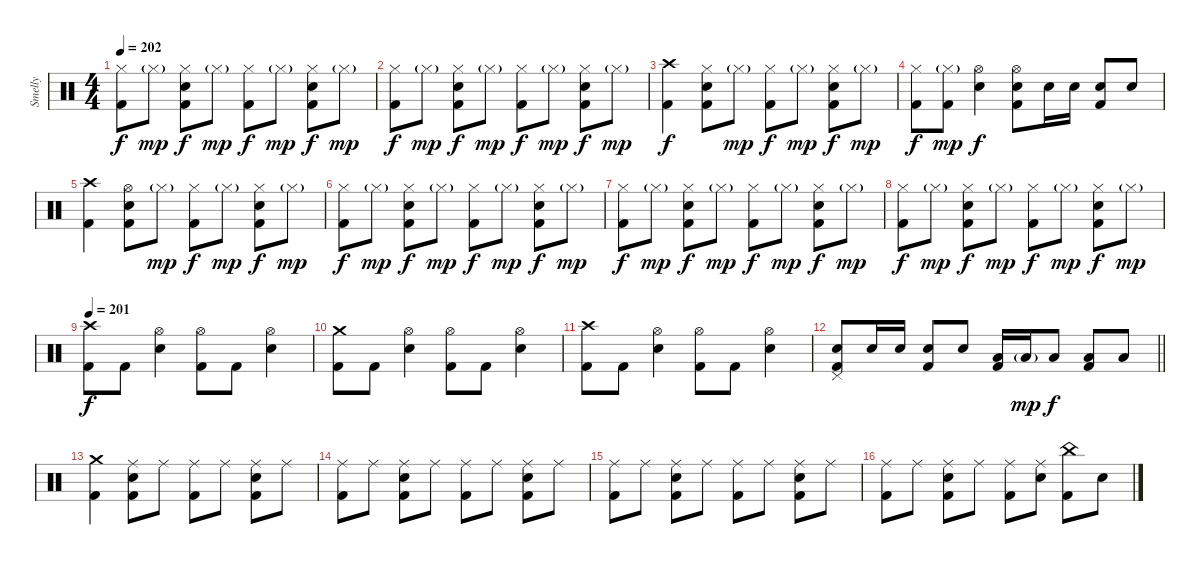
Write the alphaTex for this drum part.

\track ("Smelly" "Smelly") {instrument percussion}
\staff {score}
\articulation defaults
\ts (4 4)
\tempo 202
\clef neutral
\ks c
("Hi-Hat (closed)" "Kick (hit) 2").8{dy f} "Hi-Hat (closed)"{g}.8{dy mp} ("Hi-Hat (closed)" "Electric Snare (hit)" "Kick (hit) 2").8{dy f} "Hi-Hat (closed)"{g}.8{dy mp} ("Hi-Hat (closed)" "Kick (hit) 2").8{dy f} "Hi-Hat (closed)"{g}.8{dy mp} ("Hi-Hat (closed)" "Electric Snare (hit)" "Kick (hit) 2").8{dy f} "Hi-Hat (closed)"{g}.8{dy mp} |
("Hi-Hat (closed)" "Kick (hit) 2").8{dy f} "Hi-Hat (closed)"{g}.8{dy mp} ("Hi-Hat (closed)" "Electric Snare (hit)" "Kick (hit) 2").8{dy f} "Hi-Hat (closed)"{g}.8{dy mp} ("Hi-Hat (closed)" "Kick (hit) 2").8{dy f} "Hi-Hat (closed)"{g}.8{dy mp} ("Hi-Hat (closed)" "Electric Snare (hit)" "Kick (hit) 2").8{dy f} "Hi-Hat (closed)"{g}.8{dy mp} |
("Crash high (hit)" "Kick (hit) 2").4{dy f} ("Hi-Hat (closed)" "Electric Snare (hit)" "Kick (hit) 2").8 "Hi-Hat (closed)"{g}.8{dy mp} ("Hi-Hat (closed)" "Kick (hit) 2").8{dy f} "Hi-Hat (closed)"{g}.8{dy mp} ("Hi-Hat (closed)" "Electric Snare (hit)" "Kick (hit) 2").8{dy f} "Hi-Hat (closed)"{g}.8{dy mp} |
("Hi-Hat (closed)" "Kick (hit) 2").8{dy f} ("Hi-Hat (closed)"{g} "Kick (hit) 2").8{dy mp} ("Hi-Hat (open)" "Electric Snare (hit)").4{dy f} ("Hi-Hat (open)" "Electric Snare (hit)" "Kick (hit) 2").8 "Electric Snare (hit)".16 "Electric Snare (hit)".16 ("Electric Snare (hit)" "Kick (hit) 2").8 "Electric Snare (hit)".8 |
("Crash high (hit)" "Kick (hit) 2").4 ("Hi-Hat (open)" "Electric Snare (hit)" "Kick (hit) 2").8 "Hi-Hat (closed)"{g}.8{dy mp} ("Hi-Hat (closed)" "Kick (hit) 2").8{dy f} "Hi-Hat (closed)"{g}.8{dy mp} ("Hi-Hat (closed)" "Electric Snare (hit)" "Kick (hit) 2").8{dy f} "Hi-Hat (closed)"{g}.8{dy mp} |
("Hi-Hat (closed)" "Kick (hit) 2").8{dy f} "Hi-Hat (closed)"{g}.8{dy mp} ("Hi-Hat (closed)" "Electric Snare (hit)" "Kick (hit) 2").8{dy f} "Hi-Hat (closed)"{g}.8{dy mp} ("Hi-Hat (closed)" "Kick (hit) 2").8{dy f} "Hi-Hat (closed)"{g}.8{dy mp} ("Hi-Hat (closed)" "Electric Snare (hit)" "Kick (hit) 2").8{dy f} "Hi-Hat (closed)"{g}.8{dy mp} |
("Hi-Hat (closed)" "Kick (hit) 2").8{dy f} "Hi-Hat (closed)"{g}.8{dy mp} ("Hi-Hat (closed)" "Electric Snare (hit)" "Kick (hit) 2").8{dy f} "Hi-Hat (closed)"{g}.8{dy mp} ("Hi-Hat (closed)" "Kick (hit) 2").8{dy f} "Hi-Hat (closed)"{g}.8{dy mp} ("Hi-Hat (closed)" "Electric Snare (hit)" "Kick (hit) 2").8{dy f} "Hi-Hat (closed)"{g}.8{dy mp} |
("Hi-Hat (closed)" "Kick (hit) 2").8{dy f} "Hi-Hat (closed)"{g}.8{dy mp} ("Hi-Hat (closed)" "Electric Snare (hit)" "Kick (hit) 2").8{dy f} "Hi-Hat (closed)"{g}.8{dy mp} ("Hi-Hat (closed)" "Kick (hit) 2").8{dy f} "Hi-Hat (closed)"{g}.8{dy mp} ("Hi-Hat (closed)" "Electric Snare (hit)" "Kick (hit) 2").8{dy f} "Hi-Hat (closed)"{g}.8{dy mp} |
\tempo 201
("Crash high (hit)" "Kick (hit) 2").8{dy f} "Kick (hit) 2".8 ("Hi-Hat (open)" "Electric Snare (hit)").4 ("Hi-Hat (open)" "Kick (hit) 2").8 "Kick (hit) 2".8 ("Hi-Hat (open)" "Electric Snare (hit)").4 |
("Crash medium (hit)" "Kick (hit) 2").8 "Kick (hit) 2".8 ("Hi-Hat (open)" "Electric Snare (hit)").4 ("Hi-Hat (open)" "Kick (hit) 2").8 "Kick (hit) 2".8 ("Hi-Hat (open)" "Electric Snare (hit)").4 |
("Crash high (hit)" "Kick (hit) 2").8 "Kick (hit) 2".8 ("Hi-Hat (open)" "Electric Snare (hit)").4 ("Hi-Hat (open)" "Kick (hit) 2").8 "Kick (hit) 2".8 ("Hi-Hat (open)" "Electric Snare (hit)").4 |
\barLineRight lightlight
("Pedal Hi-Hat (hit)" "Electric Snare (hit)" "Kick (hit) 2").8 "Electric Snare (hit)".16 "Electric Snare (hit)".16 ("Electric Snare (hit)" "Kick (hit) 2").8 "Electric Snare (hit)".8 ("Low Tom (hit)" "Kick (hit) 2").16 "Low Tom (hit)"{g}.16{dy mp} "Low Tom (hit)".8{dy f} ("Low Floor Tom (hit)" "Kick (hit) 2").8 "Low Floor Tom (hit)".8 |
\section ("" "")
("Crash medium (hit)" "Kick (hit) 2").4 ("Ride (middle)" "Electric Snare (hit)" "Kick (hit) 2").8 "Ride (middle)".8 ("Ride (middle)" "Kick (hit) 2").8 "Ride (middle)".8 ("Ride (middle)" "Electric Snare (hit)" "Kick (hit) 2").8 "Ride (middle)".8 |
("Ride (middle)" "Kick (hit) 2").8 "Ride (middle)".8 ("Ride (middle)" "Electric Snare (hit)" "Kick (hit) 2").8 "Ride (middle)".8 ("Ride (middle)" "Kick (hit) 2").8 "Ride (middle)".8 ("Ride (middle)" "Electric Snare (hit)" "Kick (hit) 2").8 "Ride (middle)".8 |
("Ride (middle)" "Kick (hit) 2").8 "Ride (middle)".8 ("Ride (middle)" "Electric Snare (hit)" "Kick (hit) 2").8 "Ride (middle)".8 ("Ride (middle)" "Kick (hit) 2").8 "Ride (middle)".8 ("Ride (middle)" "Electric Snare (hit)" "Kick (hit) 2").8 "Ride (middle)".8 |
("Ride (middle)" "Kick (hit) 2").8 "Ride (middle)".8 ("Ride (middle)" "Electric Snare (hit)" "Kick (hit) 2").8 "Ride (middle)".8 ("Ride (middle)" "Kick (hit) 2").8 ("Ride (middle)" "Electric Snare (hit)").8 ("China (hit)" "Kick (hit) 2").8 "Electric Snare (hit)".8
